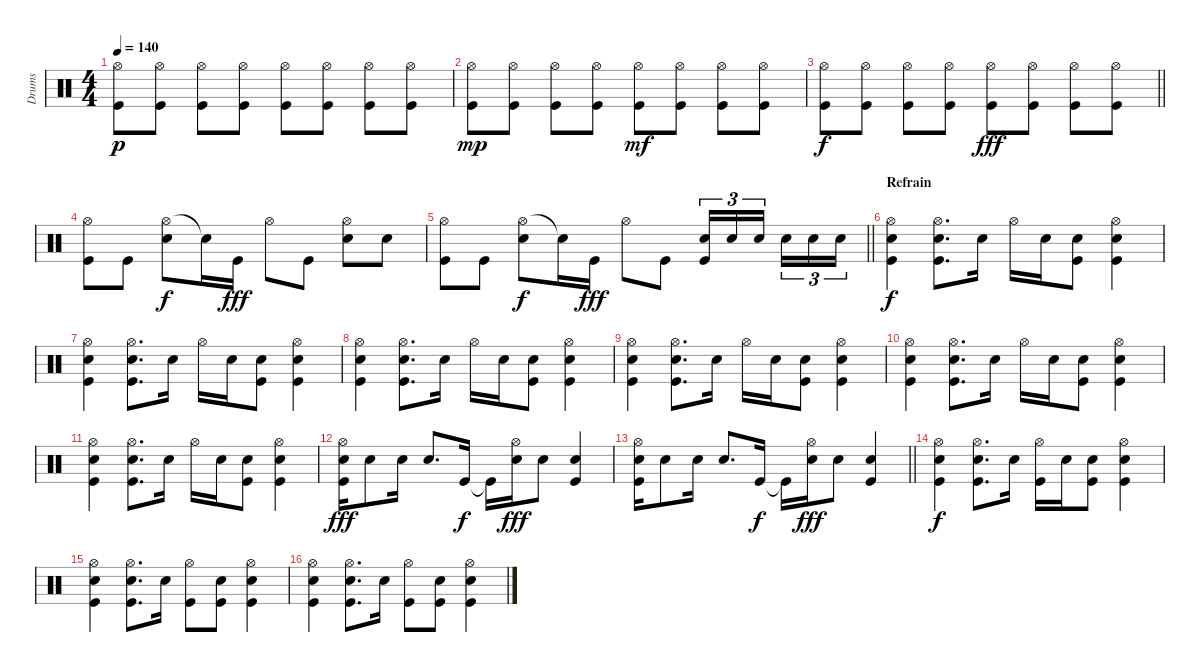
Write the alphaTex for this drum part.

\track ("Drums" "Drums") {instrument percussion}
\staff {score}
\articulation defaults
\ts (4 4)
\tempo 140
\clef neutral
\ks c
("Hi-Hat (open)" "Kick (hit)").8{dy p} ("Hi-Hat (open)" "Kick (hit)").8 ("Hi-Hat (open)" "Kick (hit)").8 ("Hi-Hat (open)" "Kick (hit)").8 ("Hi-Hat (open)" "Kick (hit)").8 ("Hi-Hat (open)" "Kick (hit)").8 ("Hi-Hat (open)" "Kick (hit)").8 ("Hi-Hat (open)" "Kick (hit)").8 |
("Hi-Hat (open)" "Kick (hit)").8{dy mp} ("Hi-Hat (open)" "Kick (hit)").8 ("Hi-Hat (open)" "Kick (hit)").8 ("Hi-Hat (open)" "Kick (hit)").8 ("Hi-Hat (open)" "Kick (hit)").8{dy mf} ("Hi-Hat (open)" "Kick (hit)").8 ("Hi-Hat (open)" "Kick (hit)").8 ("Hi-Hat (open)" "Kick (hit)").8 |
\barLineRight lightlight
("Hi-Hat (open)" "Kick (hit)").8{dy f} ("Hi-Hat (open)" "Kick (hit)").8 ("Hi-Hat (open)" "Kick (hit)").8 ("Hi-Hat (open)" "Kick (hit)").8 ("Hi-Hat (open)" "Kick (hit)").8{dy fff} ("Hi-Hat (open)" "Kick (hit)").8 ("Hi-Hat (open)" "Kick (hit)").8 ("Hi-Hat (open)" "Kick (hit)").8 |
("Hi-Hat (open)" "Kick (hit)").8 "Kick (hit)".8 ("Hi-Hat (open)" "Snare (hit) 2").8{dy f} "Snare (hit) 2"{t}.16 "Kick (hit)".16{dy fff} "Hi-Hat (open)".8 "Kick (hit)".8 ("Hi-Hat (open)" "Snare (hit) 2").8 "Snare (hit) 2".8 |
\barLineRight lightlight
("Hi-Hat (open)" "Kick (hit)").8 "Kick (hit)".8 ("Hi-Hat (open)" "Snare (hit) 2").8{dy f} "Snare (hit) 2"{t}.16 "Kick (hit)".16{dy fff} "Hi-Hat (open)".8 "Kick (hit)".8 ("Snare (hit) 2" "Kick (hit)").16{tu (3 2)} "Snare (hit) 2".16{tu (3 2)} "Snare (hit) 2".16{tu (3 2) beam splitsecondary} "Snare (hit) 2".16{tu (3 2)} "Snare (hit) 2".16{tu (3 2)} "Snare (hit) 2".16{tu (3 2)} |
\section ("" "Refrain")
("Hi-Hat (open)" "Kick (hit)" "Snare (hit) 2").4{dy f} ("Hi-Hat (open)" "Kick (hit)" "Snare (hit) 2").8{d} "Snare (hit) 2".16 "Hi-Hat (open)".16 "Snare (hit) 2".16 ("Kick (hit)" "Snare (hit) 2").8 ("Hi-Hat (open)" "Kick (hit)" "Snare (hit) 2").4 |
("Hi-Hat (open)" "Kick (hit)" "Snare (hit) 2").4 ("Hi-Hat (open)" "Kick (hit)" "Snare (hit) 2").8{d} "Snare (hit) 2".16 "Hi-Hat (open)".16 "Snare (hit) 2".16 ("Kick (hit)" "Snare (hit) 2").8 ("Hi-Hat (open)" "Kick (hit)" "Snare (hit) 2").4 |
("Hi-Hat (open)" "Kick (hit)" "Snare (hit) 2").4 ("Hi-Hat (open)" "Kick (hit)" "Snare (hit) 2").8{d} "Snare (hit) 2".16 "Hi-Hat (open)".16 "Snare (hit) 2".16 ("Kick (hit)" "Snare (hit) 2").8 ("Hi-Hat (open)" "Kick (hit)" "Snare (hit) 2").4 |
("Hi-Hat (open)" "Kick (hit)" "Snare (hit) 2").4 ("Hi-Hat (open)" "Kick (hit)" "Snare (hit) 2").8{d} "Snare (hit) 2".16 "Hi-Hat (open)".16 "Snare (hit) 2".16 ("Kick (hit)" "Snare (hit) 2").8 ("Hi-Hat (open)" "Kick (hit)" "Snare (hit) 2").4 |
("Hi-Hat (open)" "Kick (hit)" "Snare (hit) 2").4 ("Hi-Hat (open)" "Kick (hit)" "Snare (hit) 2").8{d} "Snare (hit) 2".16 "Hi-Hat (open)".16 "Snare (hit) 2".16 ("Kick (hit)" "Snare (hit) 2").8 ("Hi-Hat (open)" "Kick (hit)" "Snare (hit) 2").4 |
("Hi-Hat (open)" "Kick (hit)" "Snare (hit) 2").4 ("Hi-Hat (open)" "Kick (hit)" "Snare (hit) 2").8{d} "Snare (hit) 2".16 "Hi-Hat (open)".16 "Snare (hit) 2".16 ("Kick (hit)" "Snare (hit) 2").8 ("Hi-Hat (open)" "Kick (hit)" "Snare (hit) 2").4 |
("Hi-Hat (open)" "Kick (hit)" "Snare (hit) 2").16{dy fff} "Snare (hit) 2".8 "Snare (hit) 2".16 "Snare (hit) 2".8{d} "Kick (hit)".16{dy f} "Kick (hit)"{t}.16 ("Hi-Hat (open)" "Snare (hit) 2").16{dy fff} "Snare (hit) 2".8 ("Kick (hit)" "Snare (hit) 2").4 |
\barLineRight lightlight
("Hi-Hat (open)" "Kick (hit)" "Snare (hit) 2").16 "Snare (hit) 2".8 "Snare (hit) 2".16 "Snare (hit) 2".8{d} "Kick (hit)".16{dy f} "Kick (hit)"{t}.16 ("Hi-Hat (open)" "Snare (hit) 2").16{dy fff} "Snare (hit) 2".8 ("Kick (hit)" "Snare (hit) 2").4 |
("Hi-Hat (open)" "Kick (hit)" "Snare (hit) 2").4{dy f} ("Hi-Hat (open)" "Kick (hit)" "Snare (hit) 2").8{d} "Snare (hit) 2".16 ("Hi-Hat (open)" "Kick (hit)").16 "Snare (hit) 2".16 ("Kick (hit)" "Snare (hit) 2").8 ("Hi-Hat (open)" "Kick (hit)" "Snare (hit) 2").4 |
("Hi-Hat (open)" "Kick (hit)" "Snare (hit) 2").4 ("Hi-Hat (open)" "Kick (hit)" "Snare (hit) 2").8{d} "Snare (hit) 2".16 ("Hi-Hat (open)" "Kick (hit)").8 ("Kick (hit)" "Snare (hit) 2").8 ("Hi-Hat (open)" "Kick (hit)" "Snare (hit) 2").4 |
("Hi-Hat (open)" "Kick (hit)" "Snare (hit) 2").4 ("Hi-Hat (open)" "Kick (hit)" "Snare (hit) 2").8{d} "Snare (hit) 2".16 ("Hi-Hat (open)" "Kick (hit)").8 ("Kick (hit)" "Snare (hit) 2").8 ("Hi-Hat (open)" "Kick (hit)" "Snare (hit) 2").4
